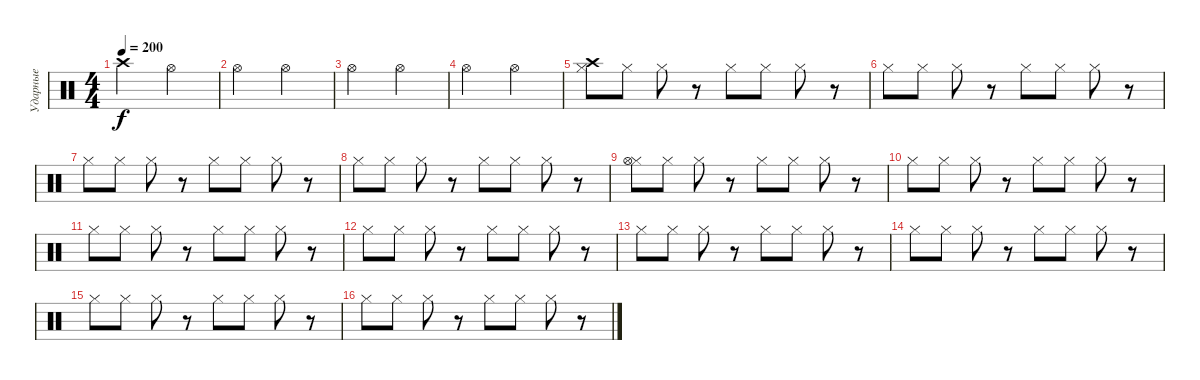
\track ("Ударные" "Ударные") {instrument percussion}
\staff {score}
\articulation defaults
\ts (4 4)
\tempo 200
\clef neutral
\ks c "Crash high (hit)".2{dy f} "Hi-Hat (open)".2
|
"Hi-Hat (open)".2 "Hi-Hat (open)".2 |
"Hi-Hat (open)".2 "Hi-Hat (open)".2 |
"Hi-Hat (open)".2 "Hi-Hat (open)".2 |
("Hi-Hat (closed)" "Crash high (hit)").8 "Hi-Hat (closed)".8 "Hi-Hat (closed)".8 r.8 "Hi-Hat (closed)".8 "Hi-Hat (closed)".8 "Hi-Hat (closed)".8 r.8 |
"Hi-Hat (closed)".8 "Hi-Hat (closed)".8 "Hi-Hat (closed)".8 r.8 "Hi-Hat (closed)".8 "Hi-Hat (closed)".8 "Hi-Hat (closed)".8 r.8 |
"Hi-Hat (closed)".8 "Hi-Hat (closed)".8 "Hi-Hat (closed)".8 r.8 "Hi-Hat (closed)".8 "Hi-Hat (closed)".8 "Hi-Hat (closed)".8 r.8 |
"Hi-Hat (closed)".8 "Hi-Hat (closed)".8 "Hi-Hat (closed)".8 r.8 "Hi-Hat (closed)".8 "Hi-Hat (closed)".8 "Hi-Hat (closed)".8 r.8 |
("Hi-Hat (closed)" "Hi-Hat (open)").8 "Hi-Hat (closed)".8 "Hi-Hat (closed)".8 r.8 "Hi-Hat (closed)".8 "Hi-Hat (closed)".8 "Hi-Hat (closed)".8 r.8 |
"Hi-Hat (closed)".8 "Hi-Hat (closed)".8 "Hi-Hat (closed)".8 r.8 "Hi-Hat (closed)".8 "Hi-Hat (closed)".8 "Hi-Hat (closed)".8 r.8 |
"Hi-Hat (closed)".8 "Hi-Hat (closed)".8 "Hi-Hat (closed)".8 r.8 "Hi-Hat (closed)".8 "Hi-Hat (closed)".8 "Hi-Hat (closed)".8 r.8 |
"Hi-Hat (closed)".8 "Hi-Hat (closed)".8 "Hi-Hat (closed)".8 r.8 "Hi-Hat (closed)".8 "Hi-Hat (closed)".8 "Hi-Hat (closed)".8 r.8 |
"Hi-Hat (closed)".8 "Hi-Hat (closed)".8 "Hi-Hat (closed)".8 r.8 "Hi-Hat (closed)".8 "Hi-Hat (closed)".8 "Hi-Hat (closed)".8 r.8 |
"Hi-Hat (closed)".8 "Hi-Hat (closed)".8 "Hi-Hat (closed)".8 r.8 "Hi-Hat (closed)".8 "Hi-Hat (closed)".8 "Hi-Hat (closed)".8 r.8 |
"Hi-Hat (closed)".8 "Hi-Hat (closed)".8 "Hi-Hat (closed)".8 r.8 "Hi-Hat (closed)".8 "Hi-Hat (closed)".8 "Hi-Hat (closed)".8 r.8 |
"Hi-Hat (closed)".8 "Hi-Hat (closed)".8 "Hi-Hat (closed)".8 r.8 "Hi-Hat (closed)".8 "Hi-Hat (closed)".8 "Hi-Hat (closed)".8 r.8
